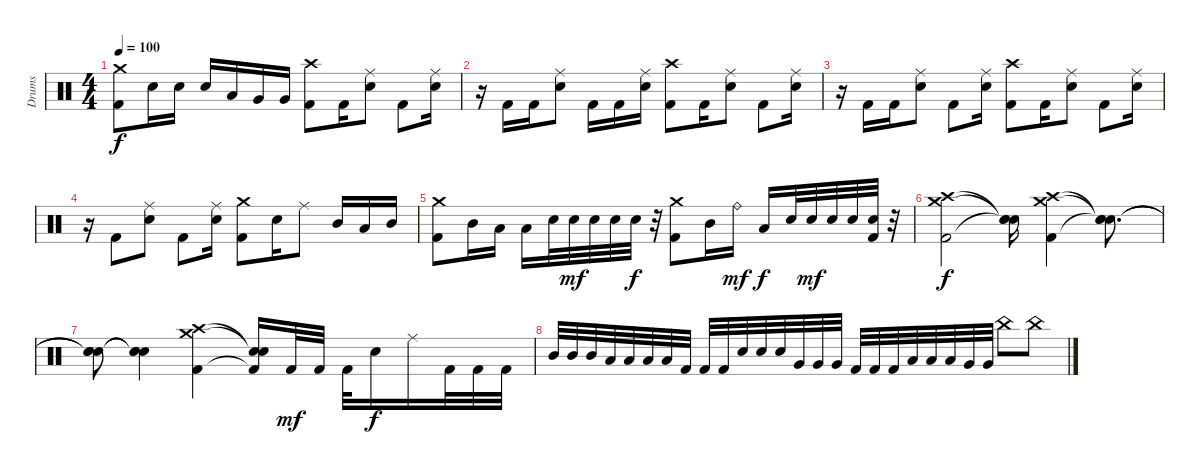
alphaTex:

\track ("Drums" "Drums") {instrument percussion}
\staff {score}
\articulation defaults
\ts (4 4)
\tempo 100
\clef neutral
\ks c
("Crash medium (hit)" "Kick (hit) 2").8{dy f} "Snare (hit) 2".16 "Snare (hit) 2".16 "Snare (hit) 2".16 "Low Tom (hit)".16 "Very Low Tom (hit)".16 "Very Low Tom (hit)".16 ("Crash high (hit)" "Kick (hit) 2").8 "Kick (hit) 2".16 ("Ride (middle)" "Snare (hit) 2").8 "Kick (hit) 2".8 ("Ride (middle)" "Snare (hit) 2").16 |
r.16 "Kick (hit) 2".16 "Kick (hit) 2".16 ("Ride (middle)" "Snare (hit) 2").8 "Kick (hit) 2".16 "Kick (hit) 2".16 ("Ride (middle)" "Snare (hit) 2").16 ("Crash high (hit)" "Kick (hit) 2").8 "Kick (hit) 2".16 ("Ride (middle)" "Snare (hit) 2").8 "Kick (hit) 2".8 ("Ride (middle)" "Snare (hit) 2").16 |
r.16 "Kick (hit) 2".16 "Kick (hit) 2".16 ("Ride (middle)" "Snare (hit) 2").8 "Kick (hit) 2".8 ("Ride (middle)" "Snare (hit) 2").16 ("Crash high (hit)" "Kick (hit) 2").8 "Kick (hit) 2".16 ("Ride (middle)" "Snare (hit) 2").8 "Kick (hit) 2".8 ("Ride (middle)" "Snare (hit) 2").16 |
r.16 "Kick (hit) 2".8 ("Ride (middle)" "Snare (hit) 2").8 "Kick (hit) 2".8 ("Ride (middle)" "Snare (hit) 2").16 ("Crash medium (hit)" "Kick (hit) 2").8 "Snare (hit) 2".16 "Ride (middle)".8 "Mid Tom (hit)".16 "Low Tom (hit)".16 "Mid Tom (hit)".16 |
("Crash medium (hit)" "Kick (hit) 2").8 "Mid Tom (hit)".16 "Low Tom (hit)".16 "Low Tom (hit)".16 "Snare (hit) 2".32 "Snare (hit) 2".32{dy mf} "Snare (hit) 2".32 "Snare (hit) 2".32 "Snare (hit) 2".32{dy f} r.32 ("Crash medium (hit)" "Kick (hit) 2").8 "Mid Tom (hit)".16 "Ride (bell)".16{dy mf} "Low Tom (hit)".16{dy f} "Snare (hit) 2".32 "Snare (hit) 2".32{dy mf} "Snare (hit) 2".32 "Snare (hit) 2".32 ("Snare (hit) 2" "Kick (hit) 2").32 r.32 |
("Crash medium (hit)" "Crash high (hit)" "Kick (hit) 2").2{dy f} ("Snare (hit)"{t} "Snare (hit)"{t} "Snare (hit)"{t}).16 ("Crash medium (hit)" "Crash high (hit)" "Kick (hit) 2").4 ("Snare (hit)"{t} "Snare (hit)"{t} "Snare (hit)"{t}).8{d} |
("Snare (hit)"{t} "Snare (hit)"{t} "Snare (hit)"{t}).8 ("Snare (hit)"{t} "Snare (hit)"{t} "Snare (hit)"{t}).4 ("Crash medium (hit)" "Crash high (hit)" "Kick (hit) 2").4 ("Snare (hit)"{t} "Snare (hit)"{t} "Kick (hit) 2"{t}).16 "Kick (hit) 2".32{dy mf} "Kick (hit) 2".32 "Kick (hit) 2".32 "Snare (hit) 2".16{dy f} "Ride (middle)".16 "Kick (hit) 2".32 "Kick (hit) 2".32 "Kick (hit) 2".32 |
"Mid Tom (hit)".32 "Mid Tom (hit)".32 "Mid Tom (hit)".32 "Low Tom (hit)".32 "Low Tom (hit)".32 "Low Tom (hit)".32 "Low Tom (hit)".32 "Kick (hit) 2".32 "Kick (hit) 2".32 "Kick (hit) 2".32 "Snare (hit) 2".32 "Snare (hit) 2".32 "Snare (hit) 2".32 "Very Low Tom (hit)".32 "Very Low Tom (hit)".32 "Very Low Tom (hit)".32 "Kick (hit) 2".32 "Kick (hit) 2".32 "Kick (hit) 2".32 "Low Tom (hit)".32 "Low Tom (hit)".32 "Low Tom (hit)".32 "Very Low Tom (hit)".32 "Very Low Tom (hit)".32 "China (hit)".8 "China (hit)".8
